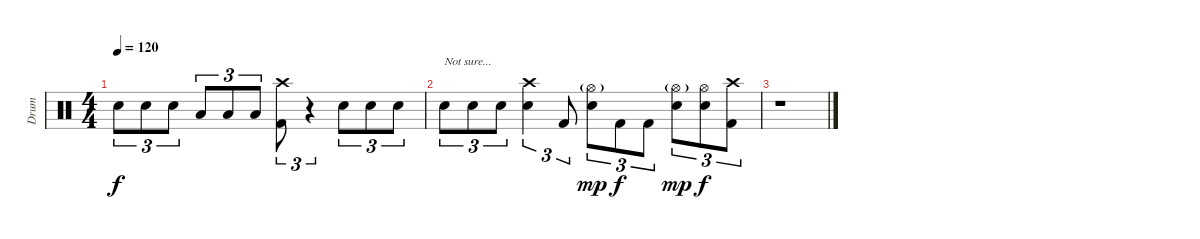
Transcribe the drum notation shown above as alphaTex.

\track ("Drum" "Drum") {instrument percussion}
\staff {score}
\articulation defaults
\ts (4 4)
\tempo 120
\clef neutral
\ks c "Electric Snare (hit)".8{tu (3 2) dy f} "Electric Snare (hit)".8{tu (3 2)} "Electric Snare (hit)".8{tu (3 2)} "Low Tom (hit)".8{tu (3 2)} "Low Tom (hit)".8{tu (3 2)} "Low Tom (hit)".8{tu (3 2)}
("Crash high (hit)" "Kick (hit) 2").8{tu (3 2)} r.4{tu (3 2)} "Electric Snare (hit)".8{tu (3 2)} "Electric Snare (hit)".8{tu (3 2)} "Electric Snare (hit)".8{tu (3 2)} |
"Electric Snare (hit)".8{tu (3 2) txt "Not sure..."} "Electric Snare (hit)".8{tu (3 2)} "Electric Snare (hit)".8{tu (3 2)} ("Electric Snare (hit)" "Crash high (hit)").4{tu (3 2)} "Kick (hit) 2".8{tu (3 2)} ("Electric Snare (hit)" "Hi-Hat (open)"{g}).8{tu (3 2) dy mp} "Kick (hit) 2".8{tu (3 2) dy f} "Kick (hit) 2".8{tu (3 2)} ("Electric Snare (hit)" "Hi-Hat (open)"{g}).8{tu (3 2) dy mp} ("Electric Snare (hit)" "Hi-Hat (open)").8{tu (3 2) dy f} ("Crash high (hit)" "Kick (hit) 2").8{tu (3 2)} |
r.1
